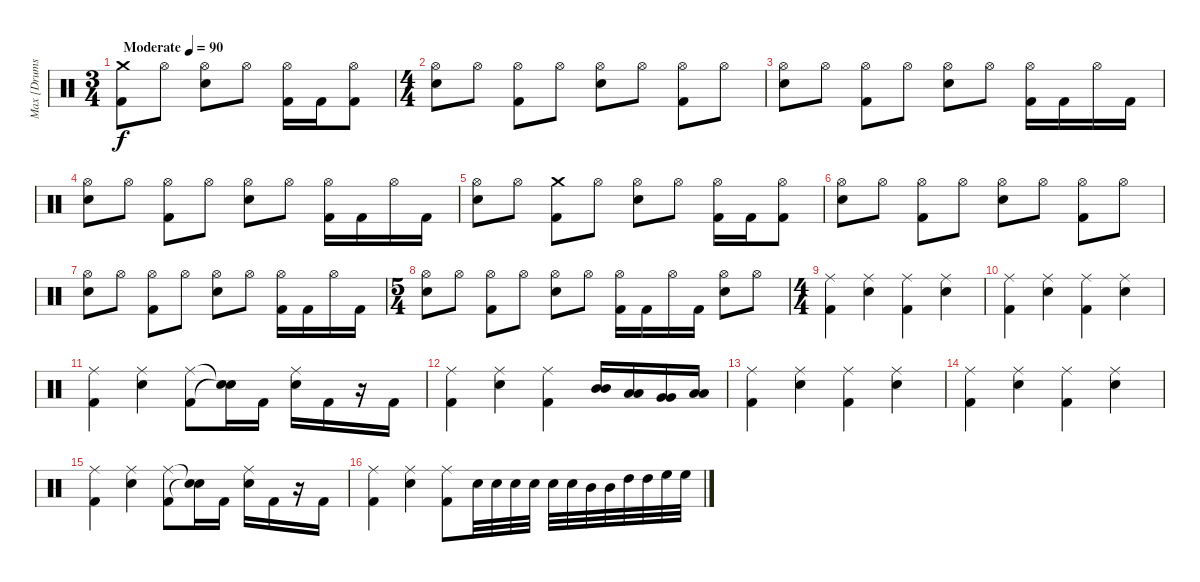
\track ("Max [Drums]" "Max [Drums") {instrument percussion}
\staff {score}
\articulation defaults
\ts (3 4)
\tempo (90 "Moderate")
\clef neutral
\ks c
("Crash medium (hit)" "Kick (hit) 2").8{dy f} "Hi-Hat (open)".8 ("Hi-Hat (open)" "Snare (hit) 2").8 "Hi-Hat (open)".8 ("Hi-Hat (open)" "Kick (hit) 2").16 "Kick (hit) 2".16 ("Hi-Hat (open)" "Kick (hit) 2").8 |
\ts (4 4)
("Hi-Hat (open)" "Snare (hit) 2").8 "Hi-Hat (open)".8 ("Hi-Hat (open)" "Kick (hit) 2").8 "Hi-Hat (open)".8 ("Hi-Hat (open)" "Snare (hit) 2").8 "Hi-Hat (open)".8 ("Hi-Hat (open)" "Kick (hit) 2").8 "Hi-Hat (open)".8 |
("Hi-Hat (open)" "Snare (hit) 2").8 "Hi-Hat (open)".8 ("Hi-Hat (open)" "Kick (hit) 2").8 "Hi-Hat (open)".8 ("Hi-Hat (open)" "Snare (hit) 2").8 "Hi-Hat (open)".8 ("Hi-Hat (open)" "Kick (hit) 2").16 "Kick (hit) 2".16 "Hi-Hat (open)".16 "Kick (hit) 2".16 |
("Hi-Hat (open)" "Snare (hit) 2").8 "Hi-Hat (open)".8 ("Hi-Hat (open)" "Kick (hit) 2").8 "Hi-Hat (open)".8 ("Hi-Hat (open)" "Snare (hit) 2").8 "Hi-Hat (open)".8 ("Hi-Hat (open)" "Kick (hit) 2").16 "Kick (hit) 2".16 "Hi-Hat (open)".16 "Kick (hit) 2".16 |
("Hi-Hat (open)" "Snare (hit) 2").8 "Hi-Hat (open)".8 ("Crash medium (hit)" "Kick (hit) 2").8 "Hi-Hat (open)".8 ("Hi-Hat (open)" "Snare (hit) 2").8 "Hi-Hat (open)".8 ("Hi-Hat (open)" "Kick (hit) 2").16 "Kick (hit) 2".16 ("Hi-Hat (open)" "Kick (hit) 2").8 |
("Hi-Hat (open)" "Snare (hit) 2").8 "Hi-Hat (open)".8 ("Hi-Hat (open)" "Kick (hit) 2").8 "Hi-Hat (open)".8 ("Hi-Hat (open)" "Snare (hit) 2").8 "Hi-Hat (open)".8 ("Hi-Hat (open)" "Kick (hit) 2").8 "Hi-Hat (open)".8 |
("Hi-Hat (open)" "Snare (hit) 2").8 "Hi-Hat (open)".8 ("Hi-Hat (open)" "Kick (hit) 2").8 "Hi-Hat (open)".8 ("Hi-Hat (open)" "Snare (hit) 2").8 "Hi-Hat (open)".8 ("Hi-Hat (open)" "Kick (hit) 2").16 "Kick (hit) 2".16 "Hi-Hat (open)".16 "Kick (hit) 2".16 |
\ts (5 4)
("Hi-Hat (open)" "Snare (hit) 2").8 "Hi-Hat (open)".8 ("Hi-Hat (open)" "Kick (hit) 2").8 "Hi-Hat (open)".8 ("Hi-Hat (open)" "Snare (hit) 2").8 "Hi-Hat (open)".8 ("Hi-Hat (open)" "Kick (hit) 2").16 "Kick (hit) 2".16 "Hi-Hat (open)".16 "Kick (hit) 2".16 ("Hi-Hat (open)" "Snare (hit) 2").8 "Hi-Hat (open)".8 |
\ts (4 4)
("Ride (middle)" "Kick (hit) 2").4 ("Ride (middle)" "Snare (hit) 2").4 ("Ride (middle)" "Kick (hit) 2").4 ("Ride (middle)" "Snare (hit) 2").4 |
("Ride (middle)" "Kick (hit) 2").4 ("Ride (middle)" "Snare (hit) 2").4 ("Ride (middle)" "Kick (hit) 2").4 ("Ride (middle)" "Snare (hit) 2").4 |
("Ride (middle)" "Kick (hit) 2").4 ("Ride (middle)" "Snare (hit) 2").4 ("Ride (middle)" "Kick (hit) 2").8 ("Snare (hit)"{t} "Snare (hit)"{t}).16 "Kick (hit) 2".16 ("Ride (middle)" "Snare (hit) 2").16 "Kick (hit) 2".16 r.16 "Kick (hit) 2".16 |
("Ride (middle)" "Kick (hit) 2").4 ("Ride (middle)" "Snare (hit) 2").4 ("Ride (middle)" "Kick (hit) 2").4 ("Mid Tom (hit)" "Mid Tom (hit)").16{bd 480} ("Low Tom (hit)" "Low Tom (hit)").16{bd 480} ("Very Low Tom (hit)" "Very Low Tom (hit)").16{bd 480} ("Low Tom (hit)" "Low Tom (hit)").16{bd 480} |
("Ride (middle)" "Kick (hit) 2").4 ("Ride (middle)" "Snare (hit) 2").4 ("Ride (middle)" "Kick (hit) 2").4 ("Ride (middle)" "Snare (hit) 2").4 |
("Ride (middle)" "Kick (hit) 2").4 ("Ride (middle)" "Snare (hit) 2").4 ("Ride (middle)" "Kick (hit) 2").4 ("Ride (middle)" "Snare (hit) 2").4 |
("Ride (middle)" "Kick (hit) 2").4 ("Ride (middle)" "Snare (hit) 2").4 ("Ride (middle)" "Kick (hit) 2").8 ("Snare (hit)"{t} "Snare (hit)"{t}).16 "Kick (hit) 2".16 ("Ride (middle)" "Snare (hit) 2").16 "Kick (hit) 2".16 r.16 "Kick (hit) 2".16 |
("Ride (middle)" "Kick (hit) 2").4 ("Ride (middle)" "Snare (hit) 2").4 ("Ride (middle)" "Kick (hit) 2").8 "Snare (hit) 2".32 "Snare (hit) 2".32 "Snare (hit) 2".32 "Snare (hit) 2".32 "Snare (hit) 2".32 "Snare (hit) 2".32 "Mid Tom (hit)".32 "Mid Tom (hit)".32 "High Tom (hit)".32 "High Tom (hit)".32 "High Floor Tom (hit)".32 "High Floor Tom (hit)".32
